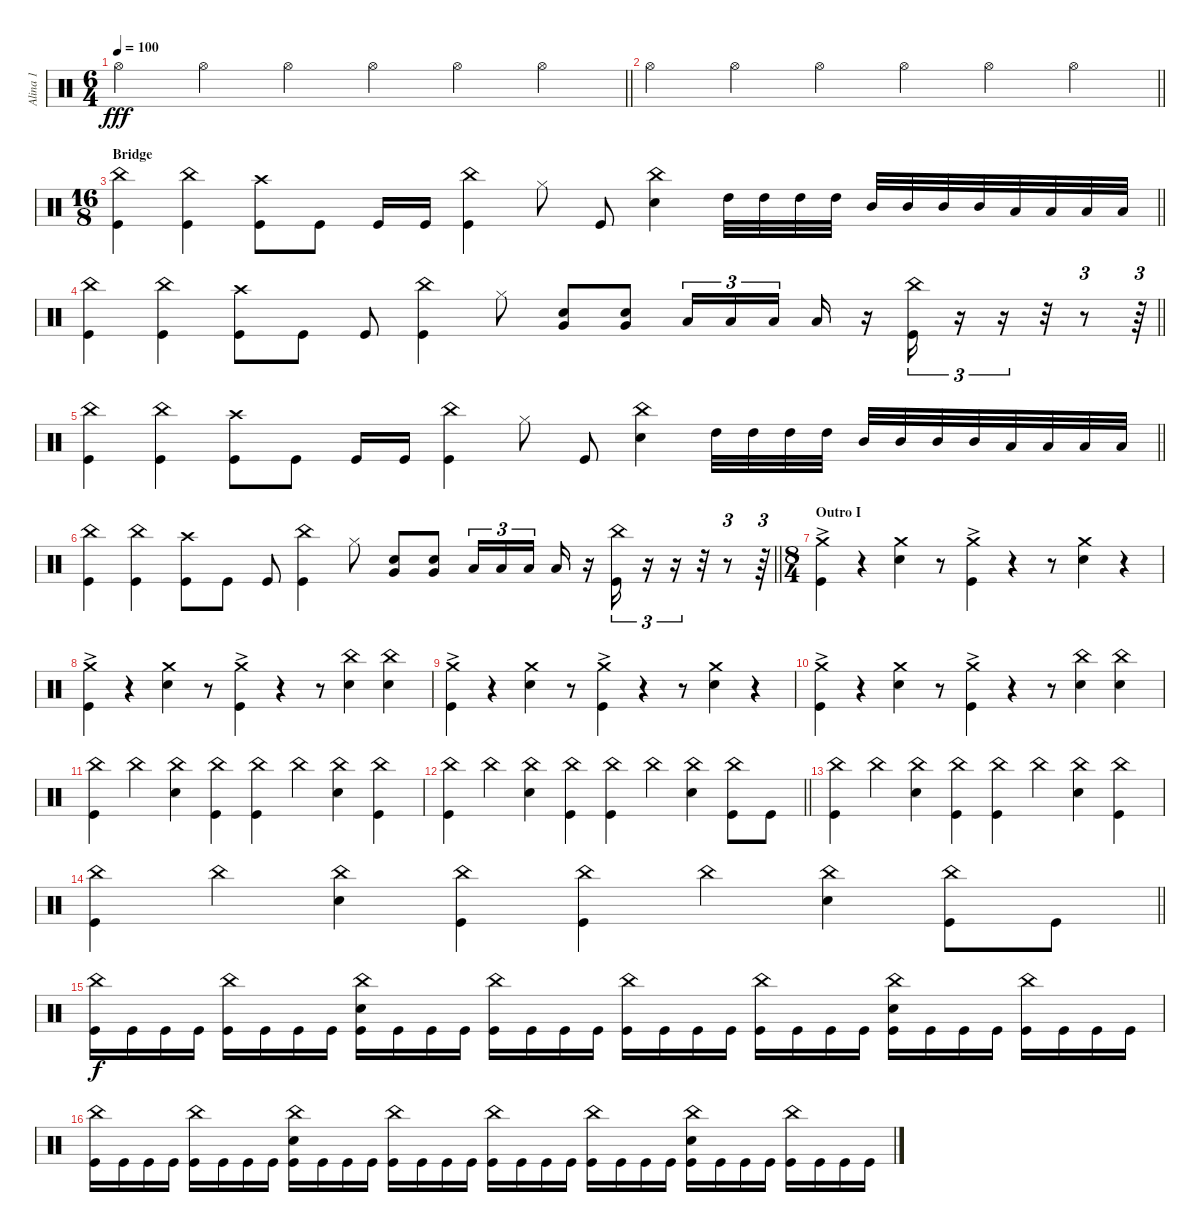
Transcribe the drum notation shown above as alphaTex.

\track ("Alina 1" "Alina 1") {mute instrument percussion}
\staff {score}
\articulation defaults
\ts (6 4)
\tempo 100
\clef neutral
\barLineRight lightlight
\ks c "Hi-Hat (open)".4{dy fff} "Hi-Hat (open)".4 "Hi-Hat (open)".4 "Hi-Hat (open)".4 "Hi-Hat (open)".4 "Hi-Hat (open)".4
|
\barLineRight lightlight "Hi-Hat (open)".4 "Hi-Hat (open)".4 "Hi-Hat (open)".4 "Hi-Hat (open)".4 "Hi-Hat (open)".4 "Hi-Hat (open)".4
|
\ts (16 8)
\section ("" "Bridge")
\barLineRight lightlight
("China (hit)" "Kick (hit)").4 ("China (hit)" "Kick (hit)").4 ("Kick (hit)" "Crash high (hit)").8 "Kick (hit)".8 "Kick (hit)".16 "Kick (hit)".16 ("Kick (hit)" "China (hit)").4 "Hi-Hat (closed)".8 "Kick (hit)".8 ("China (hit)" "Snare (hit) 2").4 "High Tom (hit)".32 "High Tom (hit)".32 "High Tom (hit)".32 "High Tom (hit)".32 "Mid Tom (hit)".32 "Mid Tom (hit)".32 "Mid Tom (hit)".32 "Mid Tom (hit)".32 "Low Tom (hit)".32 "Low Tom (hit)".32 "Low Tom (hit)".32 "Low Tom (hit)".32 |
\barLineRight lightlight
("China (hit)" "Kick (hit)").4 ("China (hit)" "Kick (hit)").4 ("Kick (hit)" "Crash high (hit)").8 "Kick (hit)".8 "Kick (hit)".8 ("Kick (hit)" "China (hit)").4 "Hi-Hat (closed)".8 ("Snare (hit) 2" "Very Low Tom (hit)").8 ("Snare (hit) 2" "Very Low Tom (hit)").8 "Low Tom (hit)".16{tu (3 2)} "Low Tom (hit)".16{tu (3 2)} "Low Tom (hit)".16{tu (3 2)} "Low Tom (hit)".16 r.16 ("China (hit)" "Kick (hit)").16{tu (3 2)} r.16{tu (3 2)} r.16{tu (3 2)} r.32 r.8{tu (3 2)} r.64{tu (3 2)} |
\barLineRight lightlight
("China (hit)" "Kick (hit)").4 ("China (hit)" "Kick (hit)").4 ("Kick (hit)" "Crash high (hit)").8 "Kick (hit)".8 "Kick (hit)".16 "Kick (hit)".16 ("Kick (hit)" "China (hit)").4 "Hi-Hat (closed)".8 "Kick (hit)".8 ("China (hit)" "Snare (hit) 2").4 "High Tom (hit)".32 "High Tom (hit)".32 "High Tom (hit)".32 "High Tom (hit)".32 "Mid Tom (hit)".32 "Mid Tom (hit)".32 "Mid Tom (hit)".32 "Mid Tom (hit)".32 "Low Tom (hit)".32 "Low Tom (hit)".32 "Low Tom (hit)".32 "Low Tom (hit)".32 |
\barLineRight lightlight
("China (hit)" "Kick (hit)").4 ("China (hit)" "Kick (hit)").4 ("Kick (hit)" "Crash high (hit)").8 "Kick (hit)".8 "Kick (hit)".8 ("Kick (hit)" "China (hit)").4 "Hi-Hat (closed)".8 ("Snare (hit) 2" "Very Low Tom (hit)").8 ("Snare (hit) 2" "Very Low Tom (hit)").8 "Low Tom (hit)".16{tu (3 2)} "Low Tom (hit)".16{tu (3 2)} "Low Tom (hit)".16{tu (3 2)} "Low Tom (hit)".16 r.16 ("China (hit)" "Kick (hit)").16{tu (3 2)} r.16{tu (3 2)} r.16{tu (3 2)} r.32 r.8{tu (3 2)} r.64{tu (3 2)} |
\ts (8 4)
\section ("" "Outro I")
("Kick (hit)"{ac} "Crash medium (hit)").4 r.4 ("Snare (hit) 2" "Crash medium (hit)").4 r.8 ("Kick (hit)"{ac} "Crash medium (hit)").4 r.4 r.8 ("Snare (hit) 2" "Crash medium (hit)").4 r.4 |
("Kick (hit)"{ac} "Crash medium (hit)").4 r.4 ("Snare (hit) 2" "Crash medium (hit)").4 r.8 ("Kick (hit)"{ac} "Crash medium (hit)").4 r.4 r.8 ("Snare (hit) 2" "China (hit)").4 ("China (hit)" "Snare (hit) 2").4 |
("Kick (hit)"{ac} "Crash medium (hit)").4 r.4 ("Snare (hit) 2" "Crash medium (hit)").4 r.8 ("Kick (hit)"{ac} "Crash medium (hit)").4 r.4 r.8 ("Snare (hit) 2" "Crash medium (hit)").4 r.4 |
("Kick (hit)"{ac} "Crash medium (hit)").4 r.4 ("Snare (hit) 2" "Crash medium (hit)").4 r.8 ("Kick (hit)"{ac} "Crash medium (hit)").4 r.4 r.8 ("Snare (hit) 2" "China (hit)").4 ("China (hit)" "Snare (hit) 2").4 |
("China (hit)" "Kick (hit)").4 "China (hit)".4 ("China (hit)" "Snare (hit) 2").4 ("China (hit)" "Kick (hit)").4 ("China (hit)" "Kick (hit)").4 "China (hit)".4 ("China (hit)" "Snare (hit) 2").4 ("China (hit)" "Kick (hit)").4 |
\barLineRight lightlight
("China (hit)" "Kick (hit)").4 "China (hit)".4 ("China (hit)" "Snare (hit) 2").4 ("China (hit)" "Kick (hit)").4 ("China (hit)" "Kick (hit)").4 "China (hit)".4 ("China (hit)" "Snare (hit) 2").4 ("China (hit)" "Kick (hit)").8 "Kick (hit)".8 |
("China (hit)" "Kick (hit)").4 "China (hit)".4 ("China (hit)" "Snare (hit) 2").4 ("China (hit)" "Kick (hit)").4 ("China (hit)" "Kick (hit)").4 "China (hit)".4 ("China (hit)" "Snare (hit) 2").4 ("China (hit)" "Kick (hit)").4 |
\barLineRight lightlight
("China (hit)" "Kick (hit)").4 "China (hit)".4 ("China (hit)" "Snare (hit) 2").4 ("China (hit)" "Kick (hit)").4 ("China (hit)" "Kick (hit)").4 "China (hit)".4 ("China (hit)" "Snare (hit) 2").4 ("China (hit)" "Kick (hit)").8 "Kick (hit)".8 |
("China (hit)" "Kick (hit)").16{dy f} "Kick (hit)".16 "Kick (hit)".16 "Kick (hit)".16 ("China (hit)" "Kick (hit)").16 "Kick (hit)".16 "Kick (hit)".16 "Kick (hit)".16 ("China (hit)" "Snare (hit) 2" "Kick (hit)").16 "Kick (hit)".16 "Kick (hit)".16 "Kick (hit)".16 ("China (hit)" "Kick (hit)").16 "Kick (hit)".16 "Kick (hit)".16 "Kick (hit)".16 ("China (hit)" "Kick (hit)").16 "Kick (hit)".16 "Kick (hit)".16 "Kick (hit)".16 ("China (hit)" "Kick (hit)").16 "Kick (hit)".16 "Kick (hit)".16 "Kick (hit)".16 ("China (hit)" "Snare (hit) 2" "Kick (hit)").16 "Kick (hit)".16 "Kick (hit)".16 "Kick (hit)".16 ("China (hit)" "Kick (hit)").16 "Kick (hit)".16 "Kick (hit)".16 "Kick (hit)".16 |
("China (hit)" "Kick (hit)").16 "Kick (hit)".16 "Kick (hit)".16 "Kick (hit)".16 ("China (hit)" "Kick (hit)").16 "Kick (hit)".16 "Kick (hit)".16 "Kick (hit)".16 ("China (hit)" "Snare (hit) 2" "Kick (hit)").16 "Kick (hit)".16 "Kick (hit)".16 "Kick (hit)".16 ("China (hit)" "Kick (hit)").16 "Kick (hit)".16 "Kick (hit)".16 "Kick (hit)".16 ("China (hit)" "Kick (hit)").16 "Kick (hit)".16 "Kick (hit)".16 "Kick (hit)".16 ("China (hit)" "Kick (hit)").16 "Kick (hit)".16 "Kick (hit)".16 "Kick (hit)".16 ("China (hit)" "Snare (hit) 2" "Kick (hit)").16 "Kick (hit)".16 "Kick (hit)".16 "Kick (hit)".16 ("China (hit)" "Kick (hit)").16 "Kick (hit)".16 "Kick (hit)".16 "Kick (hit)".16
